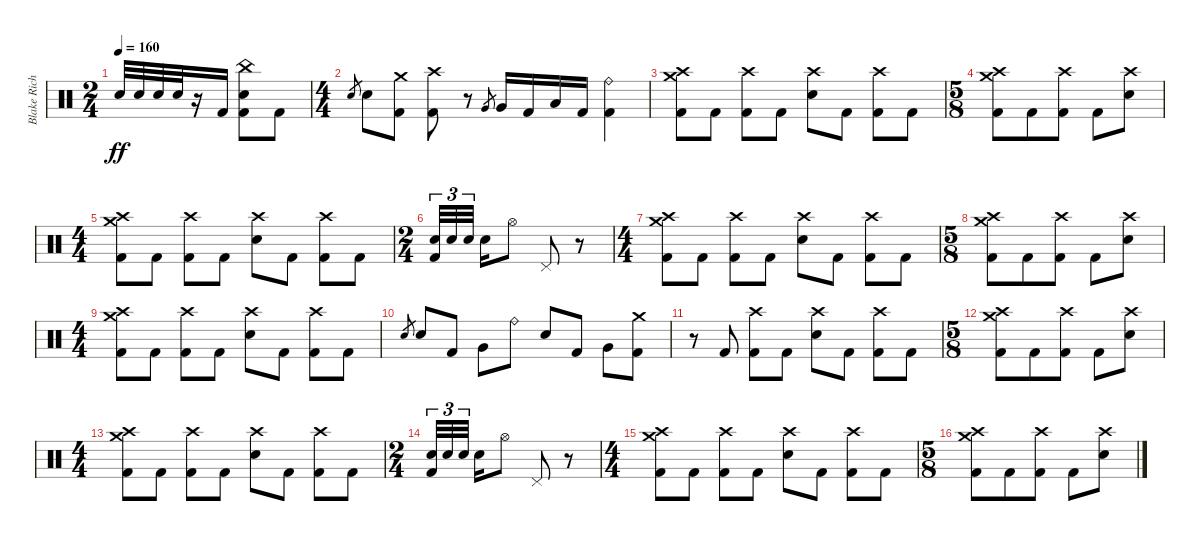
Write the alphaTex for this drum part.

\track ("Blake Richardson" "Blake Rich") {instrument percussion}
\staff {score}
\articulation defaults
\ts (2 4)
\tempo 160
\clef neutral
\ks c "Electric Snare (hit)".32{dy ff} "Electric Snare (hit)".32 "Electric Snare (hit)".32 "Electric Snare (hit)".32
r.16 "Kick (hit) 2".16 ("China (hit)" "Electric Snare (hit)" "Kick (hit) 2").8 "Kick (hit) 2".8 |
\ts (4 4)
"Electric Snare (hit)".8{gr} "Electric Snare (hit)".8 ("Crash medium (hit)" "Kick (hit) 2").8 ("Crash high (hit)" "Kick (hit) 2").8 r.8 "Very Low Tom (hit)".8{gr} "Very Low Tom (hit)".16 "Kick (hit) 2".16 "Low Tom (hit)".16 "Kick (hit) 2".16 ("Ride (bell)" "Kick (hit) 2").4 |
("Crash high (hit)" "Crash medium (hit)" "Kick (hit) 2").8 "Kick (hit) 2".8 ("Crash high (hit)" "Kick (hit) 2").8 "Kick (hit) 2".8 ("Crash high (hit)" "Electric Snare (hit)").8 "Kick (hit) 2".8 ("Crash high (hit)" "Kick (hit) 2").8 "Kick (hit) 2".8 |
\ts (5 8)
("Crash high (hit)" "Crash medium (hit)" "Kick (hit) 2").8 "Kick (hit) 2".8 ("Crash high (hit)" "Kick (hit) 2").8 "Kick (hit) 2".8 ("Crash high (hit)" "Electric Snare (hit)").8 |
\ts (4 4)
("Crash high (hit)" "Crash medium (hit)" "Kick (hit) 2").8 "Kick (hit) 2".8 ("Crash high (hit)" "Kick (hit) 2").8 "Kick (hit) 2".8 ("Crash high (hit)" "Electric Snare (hit)").8 "Kick (hit) 2".8 ("Crash high (hit)" "Kick (hit) 2").8 "Kick (hit) 2".8 |
\ts (2 4)
("Electric Snare (hit)" "Kick (hit) 2").32{tu (3 2)} "Electric Snare (hit)".32{tu (3 2)} "Electric Snare (hit)".32{tu (3 2) beam splitsecondary} "Electric Snare (hit)".16 "Hi-Hat (open)".8 "Pedal Hi-Hat (hit)".8 r.8 |
\ts (4 4)
("Crash high (hit)" "Crash medium (hit)" "Kick (hit) 2").8 "Kick (hit) 2".8 ("Crash high (hit)" "Kick (hit) 2").8 "Kick (hit) 2".8 ("Crash high (hit)" "Electric Snare (hit)").8 "Kick (hit) 2".8 ("Crash high (hit)" "Kick (hit) 2").8 "Kick (hit) 2".8 |
\ts (5 8)
("Crash high (hit)" "Crash medium (hit)" "Kick (hit) 2").8 "Kick (hit) 2".8 ("Crash high (hit)" "Kick (hit) 2").8 "Kick (hit) 2".8 ("Crash high (hit)" "Electric Snare (hit)").8 |
\ts (4 4)
("Crash high (hit)" "Crash medium (hit)" "Kick (hit) 2").8 "Kick (hit) 2".8 ("Crash high (hit)" "Kick (hit) 2").8 "Kick (hit) 2".8 ("Crash high (hit)" "Electric Snare (hit)").8 "Kick (hit) 2".8 ("Crash high (hit)" "Kick (hit) 2").8 "Kick (hit) 2".8 |
"Electric Snare (hit)".8{gr} "Electric Snare (hit)".8 "Kick (hit) 2".8 "Very Low Tom (hit)".8 "Ride (bell)".8 "Electric Snare (hit)".8 "Kick (hit) 2".8 "Very Low Tom (hit)".8 ("Crash medium (hit)" "Kick (hit) 2").8 |
r.8 "Kick (hit) 2".8 ("Crash high (hit)" "Kick (hit) 2").8 "Kick (hit) 2".8 ("Crash high (hit)" "Electric Snare (hit)").8 "Kick (hit) 2".8 ("Crash high (hit)" "Kick (hit) 2").8 "Kick (hit) 2".8 |
\ts (5 8)
("Crash high (hit)" "Crash medium (hit)" "Kick (hit) 2").8 "Kick (hit) 2".8 ("Crash high (hit)" "Kick (hit) 2").8 "Kick (hit) 2".8 ("Crash high (hit)" "Electric Snare (hit)").8 |
\ts (4 4)
("Crash high (hit)" "Crash medium (hit)" "Kick (hit) 2").8 "Kick (hit) 2".8 ("Crash high (hit)" "Kick (hit) 2").8 "Kick (hit) 2".8 ("Crash high (hit)" "Electric Snare (hit)").8 "Kick (hit) 2".8 ("Crash high (hit)" "Kick (hit) 2").8 "Kick (hit) 2".8 |
\ts (2 4)
("Electric Snare (hit)" "Kick (hit) 2").32{tu (3 2)} "Electric Snare (hit)".32{tu (3 2)} "Electric Snare (hit)".32{tu (3 2) beam splitsecondary} "Electric Snare (hit)".16 "Hi-Hat (open)".8 "Pedal Hi-Hat (hit)".8 r.8 |
\ts (4 4)
("Crash high (hit)" "Crash medium (hit)" "Kick (hit) 2").8 "Kick (hit) 2".8 ("Crash high (hit)" "Kick (hit) 2").8 "Kick (hit) 2".8 ("Crash high (hit)" "Electric Snare (hit)").8 "Kick (hit) 2".8 ("Crash high (hit)" "Kick (hit) 2").8 "Kick (hit) 2".8 |
\ts (5 8)
("Crash high (hit)" "Crash medium (hit)" "Kick (hit) 2").8 "Kick (hit) 2".8 ("Crash high (hit)" "Kick (hit) 2").8 "Kick (hit) 2".8 ("Crash high (hit)" "Electric Snare (hit)").8
